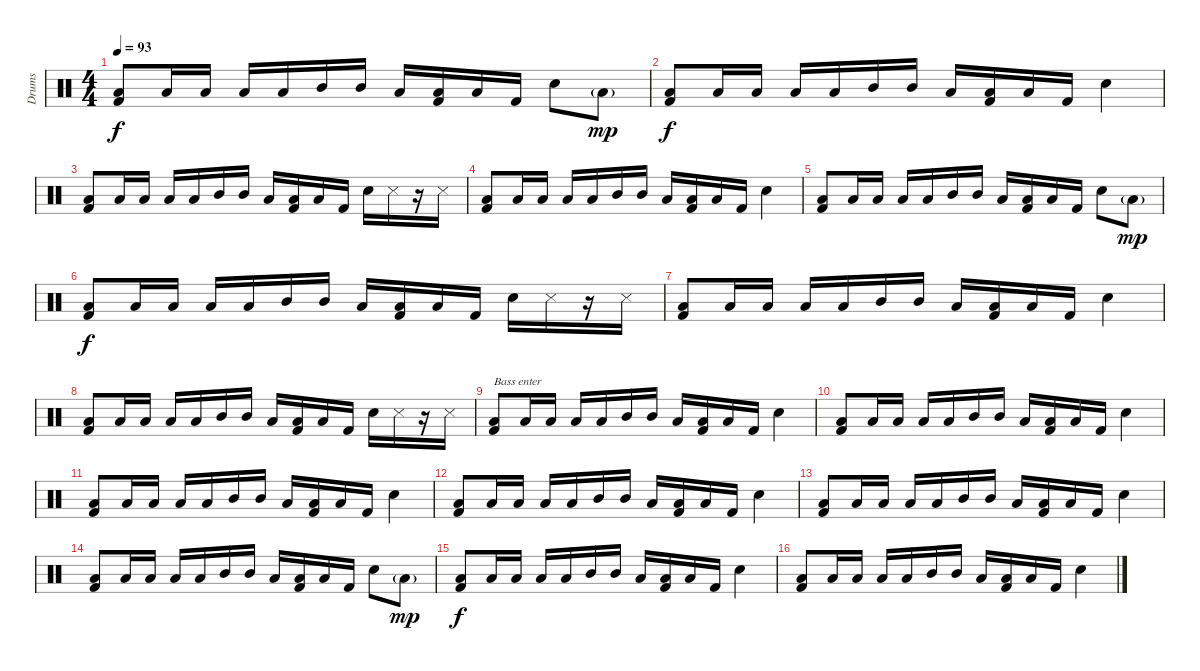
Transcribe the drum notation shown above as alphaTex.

\track ("Drums" "Drums") {instrument percussion}
\staff {score}
\articulation defaults
\ts (4 4)
\tempo 93
\clef neutral
\ks c
("Low Floor Tom (hit)" "Kick (hit) 2").8{dy f} "Low Floor Tom (hit)".16 "Low Tom (hit)".16 "Low Tom (hit)".16 "Low Floor Tom (hit)".16 "Mid Tom (hit)".16 "Mid Tom (hit)".16 "Low Floor Tom (hit)".16 ("Low Tom (hit)" "Kick (hit) 2").16 "Low Floor Tom (hit)".16 "Kick (hit) 2".16 "Snare (hit) 2".8 "Low Tom (hit)"{g}.8{dy mp} |
("Low Floor Tom (hit)" "Kick (hit) 2").8{dy f} "Low Floor Tom (hit)".16 "Low Tom (hit)".16 "Low Tom (hit)".16 "Low Floor Tom (hit)".16 "Mid Tom (hit)".16 "Mid Tom (hit)".16 "Low Floor Tom (hit)".16 ("Low Tom (hit)" "Kick (hit) 2").16 "Low Floor Tom (hit)".16 "Kick (hit) 2".16 "Snare (hit) 2".4 |
("Low Floor Tom (hit)" "Kick (hit) 2").8 "Low Floor Tom (hit)".16 "Low Tom (hit)".16 "Low Tom (hit)".16 "Low Floor Tom (hit)".16 "Mid Tom (hit)".16 "Mid Tom (hit)".16 "Low Floor Tom (hit)".16 ("Low Tom (hit)" "Kick (hit) 2").16 "Low Floor Tom (hit)".16 "Kick (hit) 2".16 "Snare (hit) 2".16 "Snare (side stick) 3".16 r.16 "Snare (side stick) 3".16 |
("Low Floor Tom (hit)" "Kick (hit) 2").8 "Low Floor Tom (hit)".16 "Low Tom (hit)".16 "Low Tom (hit)".16 "Low Floor Tom (hit)".16 "Mid Tom (hit)".16 "Mid Tom (hit)".16 "Low Floor Tom (hit)".16 ("Low Tom (hit)" "Kick (hit) 2").16 "Low Floor Tom (hit)".16 "Kick (hit) 2".16 "Snare (hit) 2".4 |
("Low Floor Tom (hit)" "Kick (hit) 2").8 "Low Floor Tom (hit)".16 "Low Tom (hit)".16 "Low Tom (hit)".16 "Low Floor Tom (hit)".16 "Mid Tom (hit)".16 "Mid Tom (hit)".16 "Low Floor Tom (hit)".16 ("Low Tom (hit)" "Kick (hit) 2").16 "Low Floor Tom (hit)".16 "Kick (hit) 2".16 "Snare (hit) 2".8 "Low Tom (hit)"{g}.8{dy mp} |
("Low Floor Tom (hit)" "Kick (hit) 2").8{dy f} "Low Floor Tom (hit)".16 "Low Tom (hit)".16 "Low Tom (hit)".16 "Low Floor Tom (hit)".16 "Mid Tom (hit)".16 "Mid Tom (hit)".16 "Low Floor Tom (hit)".16 ("Low Tom (hit)" "Kick (hit) 2").16 "Low Floor Tom (hit)".16 "Kick (hit) 2".16 "Snare (hit) 2".16 "Snare (side stick) 3".16 r.16 "Snare (side stick) 3".16 |
("Low Floor Tom (hit)" "Kick (hit) 2").8 "Low Floor Tom (hit)".16 "Low Tom (hit)".16 "Low Tom (hit)".16 "Low Floor Tom (hit)".16 "Mid Tom (hit)".16 "Mid Tom (hit)".16 "Low Floor Tom (hit)".16 ("Low Tom (hit)" "Kick (hit) 2").16 "Low Floor Tom (hit)".16 "Kick (hit) 2".16 "Snare (hit) 2".4 |
("Low Floor Tom (hit)" "Kick (hit) 2").8 "Low Floor Tom (hit)".16 "Low Tom (hit)".16 "Low Tom (hit)".16 "Low Floor Tom (hit)".16 "Mid Tom (hit)".16 "Mid Tom (hit)".16 "Low Floor Tom (hit)".16 ("Low Tom (hit)" "Kick (hit) 2").16 "Low Floor Tom (hit)".16 "Kick (hit) 2".16 "Snare (hit) 2".16 "Snare (side stick) 3".16 r.16 "Snare (side stick) 3".16 |
("Low Floor Tom (hit)" "Kick (hit) 2").8{txt "Bass enter"} "Low Floor Tom (hit)".16 "Low Tom (hit)".16 "Low Tom (hit)".16 "Low Floor Tom (hit)".16 "Mid Tom (hit)".16 "Mid Tom (hit)".16 "Low Floor Tom (hit)".16 ("Low Tom (hit)" "Kick (hit) 2").16 "Low Floor Tom (hit)".16 "Kick (hit) 2".16 "Snare (hit) 2".4 |
("Low Floor Tom (hit)" "Kick (hit) 2").8 "Low Floor Tom (hit)".16 "Low Tom (hit)".16 "Low Tom (hit)".16 "Low Floor Tom (hit)".16 "Mid Tom (hit)".16 "Mid Tom (hit)".16 "Low Floor Tom (hit)".16 ("Low Tom (hit)" "Kick (hit) 2").16 "Low Floor Tom (hit)".16 "Kick (hit) 2".16 "Snare (hit) 2".4 |
("Low Floor Tom (hit)" "Kick (hit) 2").8 "Low Floor Tom (hit)".16 "Low Tom (hit)".16 "Low Tom (hit)".16 "Low Floor Tom (hit)".16 "Mid Tom (hit)".16 "Mid Tom (hit)".16 "Low Floor Tom (hit)".16 ("Low Tom (hit)" "Kick (hit) 2").16 "Low Floor Tom (hit)".16 "Kick (hit) 2".16 "Snare (hit) 2".4 |
("Low Floor Tom (hit)" "Kick (hit) 2").8 "Low Floor Tom (hit)".16 "Low Tom (hit)".16 "Low Tom (hit)".16 "Low Floor Tom (hit)".16 "Mid Tom (hit)".16 "Mid Tom (hit)".16 "Low Floor Tom (hit)".16 ("Low Tom (hit)" "Kick (hit) 2").16 "Low Floor Tom (hit)".16 "Kick (hit) 2".16 "Snare (hit) 2".4 |
("Low Floor Tom (hit)" "Kick (hit) 2").8 "Low Floor Tom (hit)".16 "Low Tom (hit)".16 "Low Tom (hit)".16 "Low Floor Tom (hit)".16 "Mid Tom (hit)".16 "Mid Tom (hit)".16 "Low Floor Tom (hit)".16 ("Low Tom (hit)" "Kick (hit) 2").16 "Low Floor Tom (hit)".16 "Kick (hit) 2".16 "Snare (hit) 2".4 |
("Low Floor Tom (hit)" "Kick (hit) 2").8 "Low Floor Tom (hit)".16 "Low Tom (hit)".16 "Low Tom (hit)".16 "Low Floor Tom (hit)".16 "Mid Tom (hit)".16 "Mid Tom (hit)".16 "Low Floor Tom (hit)".16 ("Low Tom (hit)" "Kick (hit) 2").16 "Low Floor Tom (hit)".16 "Kick (hit) 2".16 "Snare (hit) 2".8 "Low Tom (hit)"{g}.8{dy mp} |
("Low Floor Tom (hit)" "Kick (hit) 2").8{dy f} "Low Floor Tom (hit)".16 "Low Tom (hit)".16 "Low Tom (hit)".16 "Low Floor Tom (hit)".16 "Mid Tom (hit)".16 "Mid Tom (hit)".16 "Low Floor Tom (hit)".16 ("Low Tom (hit)" "Kick (hit) 2").16 "Low Floor Tom (hit)".16 "Kick (hit) 2".16 "Snare (hit) 2".4 |
("Low Floor Tom (hit)" "Kick (hit) 2").8 "Low Floor Tom (hit)".16 "Low Tom (hit)".16 "Low Tom (hit)".16 "Low Floor Tom (hit)".16 "Mid Tom (hit)".16 "Mid Tom (hit)".16 "Low Floor Tom (hit)".16 ("Low Tom (hit)" "Kick (hit) 2").16 "Low Floor Tom (hit)".16 "Kick (hit) 2".16 "Snare (hit) 2".4
